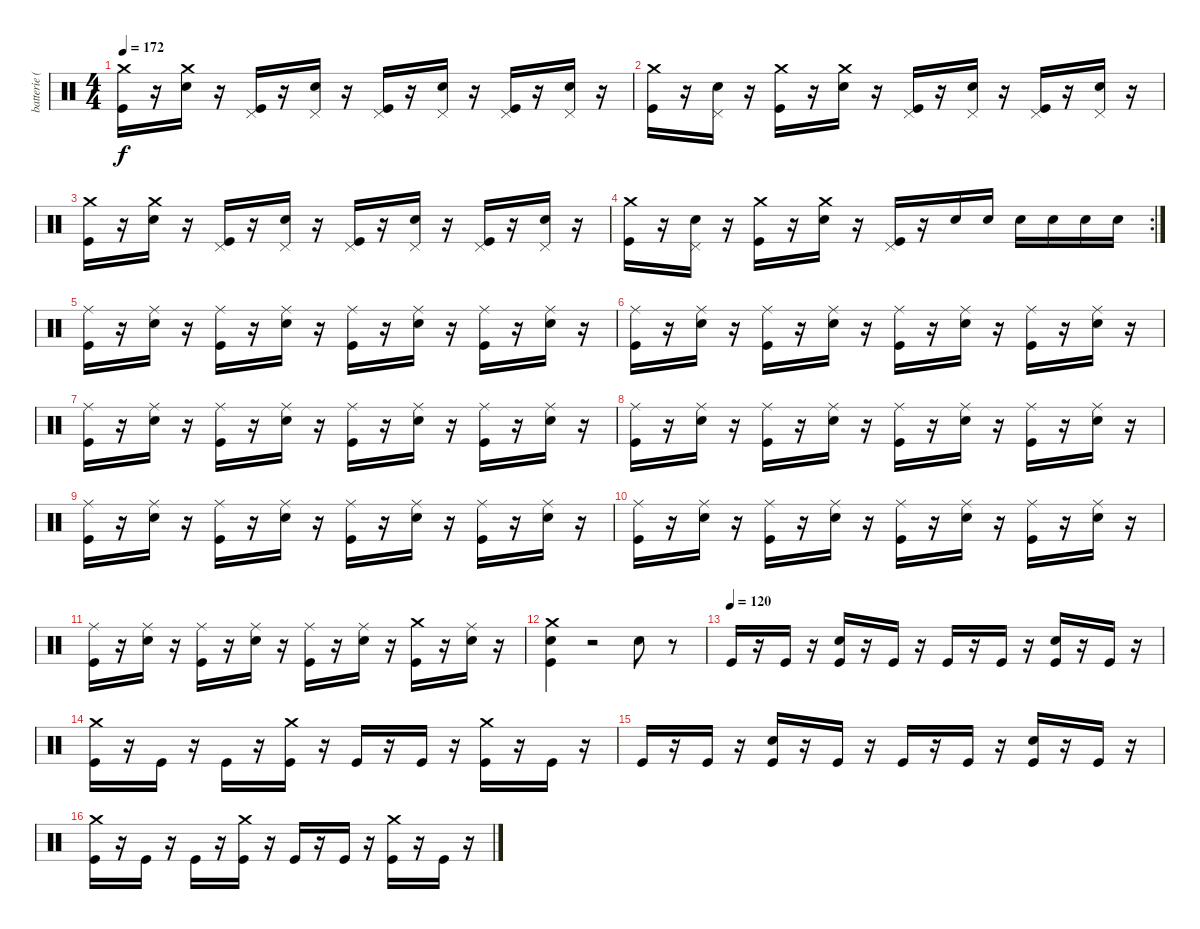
\track ("batterie ( Louie Beatto ) " "batterie (") {instrument percussion}
\staff {score}
\articulation defaults
\ts (4 4)
\tempo 172
\clef neutral
\ks c
("Crash medium (hit)" "Kick (hit)").16{dy f} r.16 ("Crash medium (hit)" "Snare (hit) 2").16 r.16 ("Pedal Hi-Hat (hit)" "Kick (hit)").16 r.16 ("Pedal Hi-Hat (hit)" "Snare (hit) 2").16 r.16 ("Pedal Hi-Hat (hit)" "Kick (hit)").16 r.16 ("Pedal Hi-Hat (hit)" "Snare (hit) 2").16 r.16 ("Pedal Hi-Hat (hit)" "Kick (hit)").16 r.16 ("Pedal Hi-Hat (hit)" "Snare (hit) 2").16 r.16 |
("Crash medium (hit)" "Kick (hit)").16 r.16 ("Pedal Hi-Hat (hit)" "Snare (hit) 2").16 r.16 ("Crash medium (hit)" "Kick (hit)").16 r.16 ("Crash medium (hit)" "Snare (hit) 2").16 r.16 ("Pedal Hi-Hat (hit)" "Kick (hit)").16 r.16 ("Pedal Hi-Hat (hit)" "Snare (hit) 2").16 r.16 ("Pedal Hi-Hat (hit)" "Kick (hit)").16 r.16 ("Pedal Hi-Hat (hit)" "Snare (hit) 2").16 r.16 |
("Crash medium (hit)" "Kick (hit)").16 r.16 ("Crash medium (hit)" "Snare (hit) 2").16 r.16 ("Pedal Hi-Hat (hit)" "Kick (hit)").16 r.16 ("Pedal Hi-Hat (hit)" "Snare (hit) 2").16 r.16 ("Pedal Hi-Hat (hit)" "Kick (hit)").16 r.16 ("Pedal Hi-Hat (hit)" "Snare (hit) 2").16 r.16 ("Pedal Hi-Hat (hit)" "Kick (hit)").16 r.16 ("Pedal Hi-Hat (hit)" "Snare (hit) 2").16 r.16 |
\rc 2
("Crash medium (hit)" "Kick (hit)").16 r.16 ("Pedal Hi-Hat (hit)" "Snare (hit) 2").16 r.16 ("Crash medium (hit)" "Kick (hit)").16 r.16 ("Crash medium (hit)" "Snare (hit) 2").16 r.16 ("Pedal Hi-Hat (hit)" "Kick (hit)").16 r.16 "Snare (hit) 2".16 "Snare (hit) 2".16 "Snare (hit) 2".16 "Snare (hit) 2".16 "Snare (hit) 2".16 "Snare (hit) 2".16 |
("Ride (middle)" "Kick (hit)").16 r.16 ("Ride (middle)" "Snare (hit) 2").16 r.16 ("Ride (middle)" "Kick (hit)").16 r.16 ("Ride (middle)" "Snare (hit) 2").16 r.16 ("Ride (middle)" "Kick (hit)").16 r.16 ("Ride (middle)" "Snare (hit) 2").16 r.16 ("Ride (middle)" "Kick (hit)").16 r.16 ("Ride (middle)" "Snare (hit) 2").16 r.16 |
("Ride (middle)" "Kick (hit)").16 r.16 ("Ride (middle)" "Snare (hit) 2").16 r.16 ("Ride (middle)" "Kick (hit)").16 r.16 ("Ride (middle)" "Snare (hit) 2").16 r.16 ("Ride (middle)" "Kick (hit)").16 r.16 ("Ride (middle)" "Snare (hit) 2").16 r.16 ("Ride (middle)" "Kick (hit)").16 r.16 ("Ride (middle)" "Snare (hit) 2").16 r.16 |
("Ride (middle)" "Kick (hit)").16 r.16 ("Ride (middle)" "Snare (hit) 2").16 r.16 ("Ride (middle)" "Kick (hit)").16 r.16 ("Ride (middle)" "Snare (hit) 2").16 r.16 ("Ride (middle)" "Kick (hit)").16 r.16 ("Ride (middle)" "Snare (hit) 2").16 r.16 ("Ride (middle)" "Kick (hit)").16 r.16 ("Ride (middle)" "Snare (hit) 2").16 r.16 |
("Ride (middle)" "Kick (hit)").16 r.16 ("Ride (middle)" "Snare (hit) 2").16 r.16 ("Ride (middle)" "Kick (hit)").16 r.16 ("Ride (middle)" "Snare (hit) 2").16 r.16 ("Ride (middle)" "Kick (hit)").16 r.16 ("Ride (middle)" "Snare (hit) 2").16 r.16 ("Ride (middle)" "Kick (hit)").16 r.16 ("Ride (middle)" "Snare (hit) 2").16 r.16 |
("Ride (middle)" "Kick (hit)").16 r.16 ("Ride (middle)" "Snare (hit) 2").16 r.16 ("Ride (middle)" "Kick (hit)").16 r.16 ("Ride (middle)" "Snare (hit) 2").16 r.16 ("Ride (middle)" "Kick (hit)").16 r.16 ("Ride (middle)" "Snare (hit) 2").16 r.16 ("Ride (middle)" "Kick (hit)").16 r.16 ("Ride (middle)" "Snare (hit) 2").16 r.16 |
("Ride (middle)" "Kick (hit)").16 r.16 ("Ride (middle)" "Snare (hit) 2").16 r.16 ("Ride (middle)" "Kick (hit)").16 r.16 ("Ride (middle)" "Snare (hit) 2").16 r.16 ("Ride (middle)" "Kick (hit)").16 r.16 ("Ride (middle)" "Snare (hit) 2").16 r.16 ("Ride (middle)" "Kick (hit)").16 r.16 ("Ride (middle)" "Snare (hit) 2").16 r.16 |
("Ride (middle)" "Kick (hit)").16 r.16 ("Ride (middle)" "Snare (hit) 2").16 r.16 ("Ride (middle)" "Kick (hit)").16 r.16 ("Ride (middle)" "Snare (hit) 2").16 r.16 ("Ride (middle)" "Kick (hit)").16 r.16 ("Ride (middle)" "Snare (hit) 2").16 r.16 ("Crash medium (hit)" "Kick (hit)").16 r.16 ("Ride (middle)" "Snare (hit) 2").16 r.16 |
("Crash medium (hit)" "Snare (hit) 2" "Kick (hit)").4 r.2 "Snare (hit) 2".8 r.8 |
\tempo (120)
"Kick (hit)".16 r.16 "Kick (hit)".16 r.16 ("Snare (hit) 2" "Kick (hit)").16 r.16 "Kick (hit)".16 r.16 "Kick (hit)".16 r.16 "Kick (hit)".16 r.16 ("Snare (hit) 2" "Kick (hit)").16 r.16 "Kick (hit)".16 r.16 |
("Crash medium (hit)" "Kick (hit)").16 r.16 "Kick (hit)".16 r.16 "Kick (hit)".16 r.16 ("Crash medium (hit)" "Kick (hit)").16 r.16 "Kick (hit)".16 r.16 "Kick (hit)".16 r.16 ("Crash medium (hit)" "Kick (hit)").16 r.16 "Kick (hit)".16 r.16 |
"Kick (hit)".16 r.16 "Kick (hit)".16 r.16 ("Snare (hit) 2" "Kick (hit)").16 r.16 "Kick (hit)".16 r.16 "Kick (hit)".16 r.16 "Kick (hit)".16 r.16 ("Snare (hit) 2" "Kick (hit)").16 r.16 "Kick (hit)".16 r.16 |
("Crash medium (hit)" "Kick (hit)").16 r.16 "Kick (hit)".16 r.16 "Kick (hit)".16 r.16 ("Crash medium (hit)" "Kick (hit)").16 r.16 "Kick (hit)".16 r.16 "Kick (hit)".16 r.16 ("Crash medium (hit)" "Kick (hit)").16 r.16 "Kick (hit)".16 r.16
